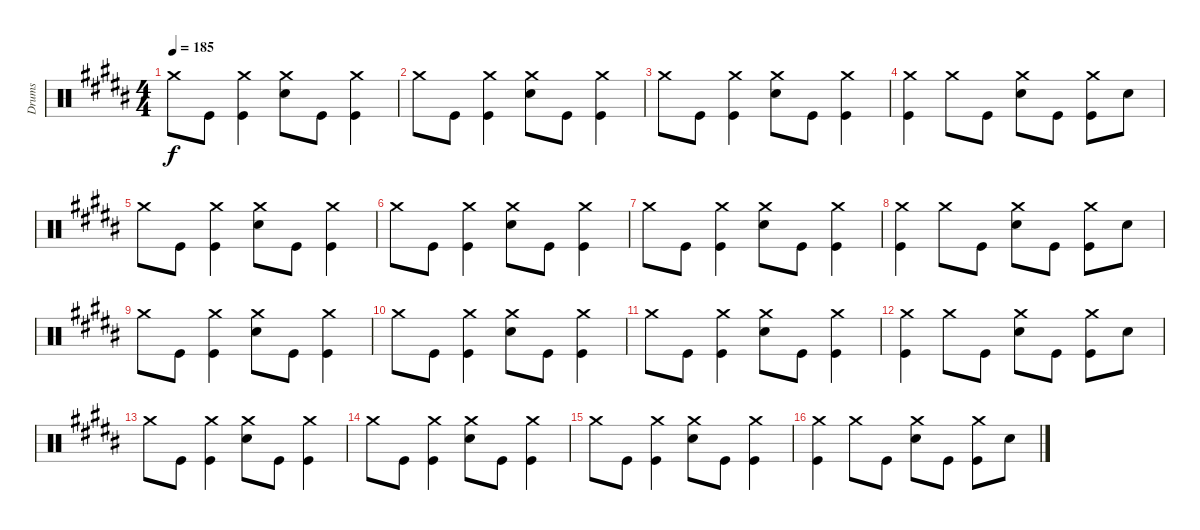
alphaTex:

\track ("Drums" "Drums") {instrument percussion}
\staff {score}
\articulation defaults
\ts (4 4)
\tempo 185
\clef neutral
\ks g#minor "Crash medium (hit)".8{dy f} "Kick (hit)".8
("Crash medium (hit)" "Kick (hit)").4 ("Snare (hit) 2" "Crash medium (hit)").8 "Kick (hit)".8 ("Kick (hit)" "Crash medium (hit)").4 |
"Crash medium (hit)".8 "Kick (hit)".8 ("Crash medium (hit)" "Kick (hit)").4 ("Snare (hit) 2" "Crash medium (hit)").8 "Kick (hit)".8 ("Kick (hit)" "Crash medium (hit)").4 |
"Crash medium (hit)".8 "Kick (hit)".8 ("Crash medium (hit)" "Kick (hit)").4 ("Snare (hit) 2" "Crash medium (hit)").8 "Kick (hit)".8 ("Kick (hit)" "Crash medium (hit)").4 |
\ks b
("Kick (hit)" "Crash medium (hit)").4 "Crash medium (hit)".8 "Kick (hit)".8 ("Snare (hit) 2" "Crash medium (hit)").8 "Kick (hit)".8 ("Kick (hit)" "Crash medium (hit)").8 "Snare (hit) 2".8 |
\ks g#minor "Crash medium (hit)".8 "Kick (hit)".8
("Crash medium (hit)" "Kick (hit)").4 ("Snare (hit) 2" "Crash medium (hit)").8 "Kick (hit)".8 ("Kick (hit)" "Crash medium (hit)").4 |
"Crash medium (hit)".8 "Kick (hit)".8 ("Crash medium (hit)" "Kick (hit)").4 ("Snare (hit) 2" "Crash medium (hit)").8 "Kick (hit)".8 ("Kick (hit)" "Crash medium (hit)").4 |
"Crash medium (hit)".8 "Kick (hit)".8 ("Crash medium (hit)" "Kick (hit)").4 ("Snare (hit) 2" "Crash medium (hit)").8 "Kick (hit)".8 ("Kick (hit)" "Crash medium (hit)").4 |
\ks b
("Kick (hit)" "Crash medium (hit)").4 "Crash medium (hit)".8 "Kick (hit)".8 ("Snare (hit) 2" "Crash medium (hit)").8 "Kick (hit)".8 ("Kick (hit)" "Crash medium (hit)").8 "Snare (hit) 2".8 |
\ks g#minor "Crash medium (hit)".8 "Kick (hit)".8
("Crash medium (hit)" "Kick (hit)").4 ("Snare (hit) 2" "Crash medium (hit)").8 "Kick (hit)".8 ("Kick (hit)" "Crash medium (hit)").4 |
"Crash medium (hit)".8 "Kick (hit)".8 ("Crash medium (hit)" "Kick (hit)").4 ("Snare (hit) 2" "Crash medium (hit)").8 "Kick (hit)".8 ("Kick (hit)" "Crash medium (hit)").4 |
"Crash medium (hit)".8 "Kick (hit)".8 ("Crash medium (hit)" "Kick (hit)").4 ("Snare (hit) 2" "Crash medium (hit)").8 "Kick (hit)".8 ("Kick (hit)" "Crash medium (hit)").4 |
\ks b
("Kick (hit)" "Crash medium (hit)").4 "Crash medium (hit)".8 "Kick (hit)".8 ("Snare (hit) 2" "Crash medium (hit)").8 "Kick (hit)".8 ("Kick (hit)" "Crash medium (hit)").8 "Snare (hit) 2".8 |
\ks g#minor "Crash medium (hit)".8 "Kick (hit)".8
("Crash medium (hit)" "Kick (hit)").4 ("Snare (hit) 2" "Crash medium (hit)").8 "Kick (hit)".8 ("Kick (hit)" "Crash medium (hit)").4 |
"Crash medium (hit)".8 "Kick (hit)".8 ("Crash medium (hit)" "Kick (hit)").4 ("Snare (hit) 2" "Crash medium (hit)").8 "Kick (hit)".8 ("Kick (hit)" "Crash medium (hit)").4 |
"Crash medium (hit)".8 "Kick (hit)".8 ("Crash medium (hit)" "Kick (hit)").4 ("Snare (hit) 2" "Crash medium (hit)").8 "Kick (hit)".8 ("Kick (hit)" "Crash medium (hit)").4 |
\ks b
("Kick (hit)" "Crash medium (hit)").4 "Crash medium (hit)".8 "Kick (hit)".8 ("Snare (hit) 2" "Crash medium (hit)").8 "Kick (hit)".8 ("Kick (hit)" "Crash medium (hit)").8 "Snare (hit) 2".8
